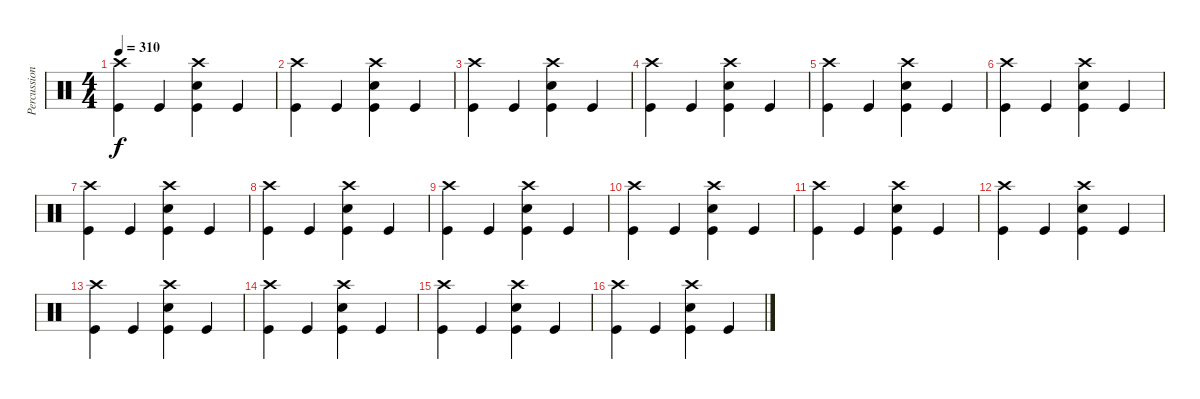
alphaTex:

\track ("Percussion" "Percussion") {instrument percussion}
\staff {score}
\articulation defaults
\ts (4 4)
\tempo 310
\clef neutral
\ks c
("Crash high (hit)" "Kick (hit)").4{dy f} "Kick (hit)".4 ("Crash high (hit)" "Electric Snare (hit)" "Kick (hit)").4 "Kick (hit)".4 |
("Crash high (hit)" "Kick (hit)").4 "Kick (hit)".4 ("Crash high (hit)" "Electric Snare (hit)" "Kick (hit)").4 "Kick (hit)".4 |
("Crash high (hit)" "Kick (hit)").4 "Kick (hit)".4 ("Crash high (hit)" "Electric Snare (hit)" "Kick (hit)").4 "Kick (hit)".4 |
("Crash high (hit)" "Kick (hit)").4 "Kick (hit)".4 ("Crash high (hit)" "Electric Snare (hit)" "Kick (hit)").4 "Kick (hit)".4 |
("Crash high (hit)" "Kick (hit)").4 "Kick (hit)".4 ("Crash high (hit)" "Electric Snare (hit)" "Kick (hit)").4 "Kick (hit)".4 |
("Crash high (hit)" "Kick (hit)").4 "Kick (hit)".4 ("Crash high (hit)" "Electric Snare (hit)" "Kick (hit)").4 "Kick (hit)".4 |
("Crash high (hit)" "Kick (hit)").4 "Kick (hit)".4 ("Crash high (hit)" "Electric Snare (hit)" "Kick (hit)").4 "Kick (hit)".4 |
("Crash high (hit)" "Kick (hit)").4 "Kick (hit)".4 ("Crash high (hit)" "Electric Snare (hit)" "Kick (hit)").4 "Kick (hit)".4 |
("Crash high (hit)" "Kick (hit)").4 "Kick (hit)".4 ("Crash high (hit)" "Electric Snare (hit)" "Kick (hit)").4 "Kick (hit)".4 |
("Crash high (hit)" "Kick (hit)").4 "Kick (hit)".4 ("Crash high (hit)" "Electric Snare (hit)" "Kick (hit)").4 "Kick (hit)".4 |
("Crash high (hit)" "Kick (hit)").4 "Kick (hit)".4 ("Crash high (hit)" "Electric Snare (hit)" "Kick (hit)").4 "Kick (hit)".4 |
("Crash high (hit)" "Kick (hit)").4 "Kick (hit)".4 ("Crash high (hit)" "Electric Snare (hit)" "Kick (hit)").4 "Kick (hit)".4 |
("Crash high (hit)" "Kick (hit)").4 "Kick (hit)".4 ("Crash high (hit)" "Electric Snare (hit)" "Kick (hit)").4 "Kick (hit)".4 |
("Crash high (hit)" "Kick (hit)").4 "Kick (hit)".4 ("Crash high (hit)" "Electric Snare (hit)" "Kick (hit)").4 "Kick (hit)".4 |
("Crash high (hit)" "Kick (hit)").4 "Kick (hit)".4 ("Crash high (hit)" "Electric Snare (hit)" "Kick (hit)").4 "Kick (hit)".4 |
("Crash high (hit)" "Kick (hit)").4 "Kick (hit)".4 ("Crash high (hit)" "Electric Snare (hit)" "Kick (hit)").4 "Kick (hit)".4
